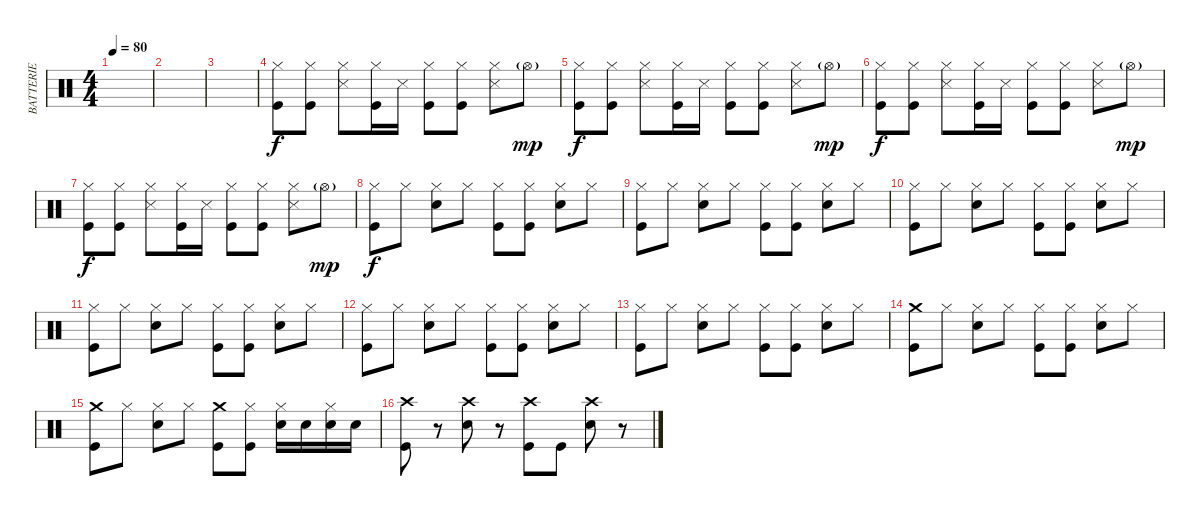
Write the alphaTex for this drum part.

\track ("BATTERIE" "BATTERIE") {instrument percussion}
\staff {score}
\articulation defaults
\ts (4 4)
\tempo 80
\clef neutral
\ks c
|
|
|
("Hi-Hat (closed)" "Kick (hit)").8 ("Hi-Hat (closed)" "Kick (hit)").8 ("Hi-Hat (closed)" "Snare (side stick) 3").8 ("Hi-Hat (closed)" "Kick (hit)").16 "Snare (side stick) 3".16 ("Hi-Hat (closed)" "Kick (hit)").8 ("Hi-Hat (closed)" "Kick (hit)").8 ("Hi-Hat (closed)" "Snare (side stick) 3").8 "Hi-Hat (open)"{g}.8{dy mp} |
("Hi-Hat (closed)" "Kick (hit)").8{dy f} ("Hi-Hat (closed)" "Kick (hit)").8 ("Hi-Hat (closed)" "Snare (side stick) 3").8 ("Hi-Hat (closed)" "Kick (hit)").16 "Snare (side stick) 3".16 ("Hi-Hat (closed)" "Kick (hit)").8 ("Hi-Hat (closed)" "Kick (hit)").8 ("Hi-Hat (closed)" "Snare (side stick) 3").8 "Hi-Hat (open)"{g}.8{dy mp} |
("Hi-Hat (closed)" "Kick (hit)").8{dy f} ("Hi-Hat (closed)" "Kick (hit)").8 ("Hi-Hat (closed)" "Snare (side stick) 3").8 ("Hi-Hat (closed)" "Kick (hit)").16 "Snare (side stick) 3".16 ("Hi-Hat (closed)" "Kick (hit)").8 ("Hi-Hat (closed)" "Kick (hit)").8 ("Hi-Hat (closed)" "Snare (side stick) 3").8 "Hi-Hat (open)"{g}.8{dy mp} |
("Hi-Hat (closed)" "Kick (hit)").8{dy f} ("Hi-Hat (closed)" "Kick (hit)").8 ("Hi-Hat (closed)" "Snare (side stick) 3").8 ("Hi-Hat (closed)" "Kick (hit)").16 "Snare (side stick) 3".16 ("Hi-Hat (closed)" "Kick (hit)").8 ("Hi-Hat (closed)" "Kick (hit)").8 ("Hi-Hat (closed)" "Snare (side stick) 3").8 "Hi-Hat (open)"{g}.8{dy mp} |
("Hi-Hat (closed)" "Kick (hit)").8{dy f} "Hi-Hat (closed)".8 ("Hi-Hat (closed)" "Electric Snare (hit)").8 "Hi-Hat (closed)".8 ("Hi-Hat (closed)" "Kick (hit)").8 ("Hi-Hat (closed)" "Kick (hit)").8 ("Hi-Hat (closed)" "Electric Snare (hit)").8 "Hi-Hat (closed)".8 |
("Hi-Hat (closed)" "Kick (hit)").8 "Hi-Hat (closed)".8 ("Hi-Hat (closed)" "Electric Snare (hit)").8 "Hi-Hat (closed)".8 ("Hi-Hat (closed)" "Kick (hit)").8 ("Hi-Hat (closed)" "Kick (hit)").8 ("Hi-Hat (closed)" "Electric Snare (hit)").8 "Hi-Hat (closed)".8 |
("Hi-Hat (closed)" "Kick (hit)").8 "Hi-Hat (closed)".8 ("Hi-Hat (closed)" "Electric Snare (hit)").8 "Hi-Hat (closed)".8 ("Hi-Hat (closed)" "Kick (hit)").8 ("Hi-Hat (closed)" "Kick (hit)").8 ("Hi-Hat (closed)" "Electric Snare (hit)").8 "Hi-Hat (closed)".8 |
("Hi-Hat (closed)" "Kick (hit)").8 "Hi-Hat (closed)".8 ("Hi-Hat (closed)" "Electric Snare (hit)").8 "Hi-Hat (closed)".8 ("Hi-Hat (closed)" "Kick (hit)").8 ("Hi-Hat (closed)" "Kick (hit)").8 ("Hi-Hat (closed)" "Electric Snare (hit)").8 "Hi-Hat (closed)".8 |
("Hi-Hat (closed)" "Kick (hit)").8 "Hi-Hat (closed)".8 ("Hi-Hat (closed)" "Electric Snare (hit)").8 "Hi-Hat (closed)".8 ("Hi-Hat (closed)" "Kick (hit)").8 ("Hi-Hat (closed)" "Kick (hit)").8 ("Hi-Hat (closed)" "Electric Snare (hit)").8 "Hi-Hat (closed)".8 |
("Hi-Hat (closed)" "Kick (hit)").8 "Hi-Hat (closed)".8 ("Hi-Hat (closed)" "Electric Snare (hit)").8 "Hi-Hat (closed)".8 ("Hi-Hat (closed)" "Kick (hit)").8 ("Hi-Hat (closed)" "Kick (hit)").8 ("Hi-Hat (closed)" "Electric Snare (hit)").8 "Hi-Hat (closed)".8 |
("Crash medium (hit)" "Kick (hit)").8 "Hi-Hat (closed)".8 ("Hi-Hat (closed)" "Electric Snare (hit)").8 "Hi-Hat (closed)".8 ("Hi-Hat (closed)" "Kick (hit)").8 ("Hi-Hat (closed)" "Kick (hit)").8 ("Hi-Hat (closed)" "Electric Snare (hit)").8 "Hi-Hat (closed)".8 |
("Crash medium (hit)" "Kick (hit)").8 "Hi-Hat (closed)".8 ("Hi-Hat (closed)" "Electric Snare (hit)").8 "Hi-Hat (closed)".8 ("Crash medium (hit)" "Kick (hit)").8 ("Hi-Hat (closed)" "Kick (hit)").8 ("Hi-Hat (closed)" "Electric Snare (hit)").16 "Electric Snare (hit)".16 ("Hi-Hat (closed)" "Electric Snare (hit)").16 "Electric Snare (hit)".16 |
("Crash high (hit)" "Kick (hit)").8 r.8 ("Crash high (hit)" "Electric Snare (hit)").8 r.8 ("Crash high (hit)" "Kick (hit)").8 "Kick (hit)".8 ("Crash high (hit)" "Electric Snare (hit)").8 r.8
